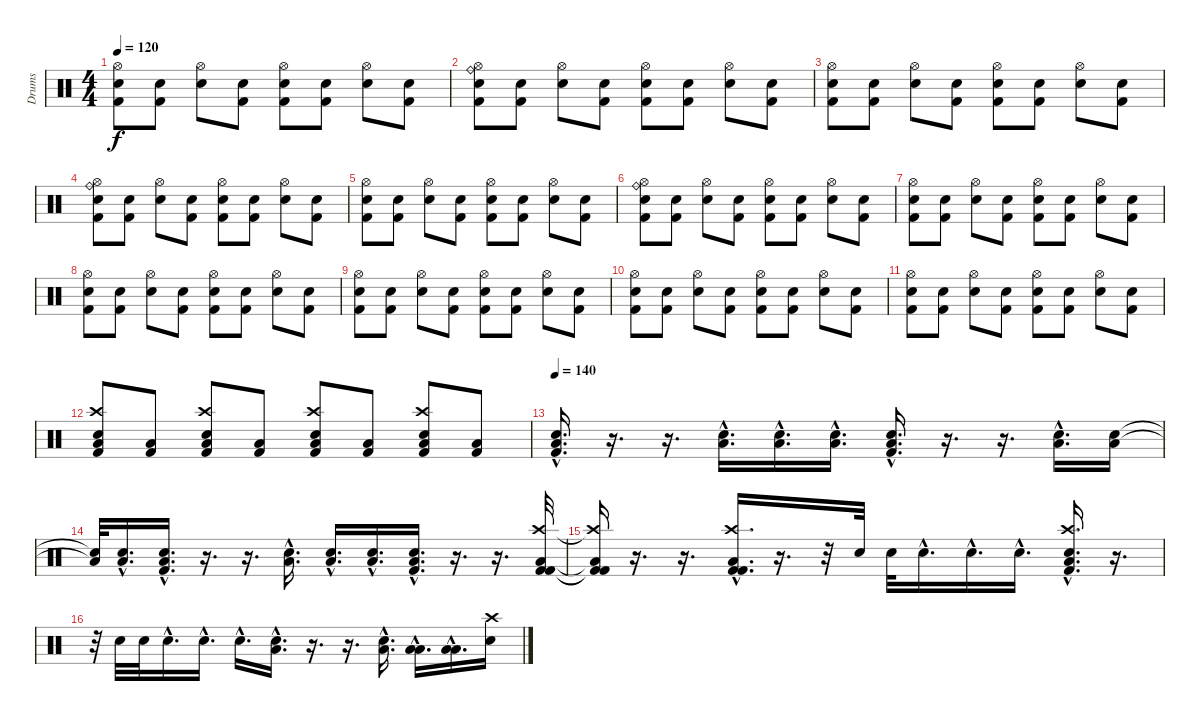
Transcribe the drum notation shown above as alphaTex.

\track ("Drums" "Drums") {instrument percussion}
\staff {score}
\articulation defaults
\ts (4 4)
\tempo 120
\clef neutral
\ks c
("Hi-Hat (open)" "Electric Snare (hit)" "Kick (hit) 2").8{dy f} ("Electric Snare (hit)" "Kick (hit) 2").8 ("Hi-Hat (open)" "Electric Snare (hit)").8 ("Snare (hit) 2" "Kick (hit) 2").8 ("Hi-Hat (open)" "Electric Snare (hit)" "Kick (hit) 2").8 ("Electric Snare (hit)" "Kick (hit) 2").8 ("Hi-Hat (open)" "Electric Snare (hit)").8 ("Kick (hit) 2" "Snare (hit) 2").8 |
("Ride (bell)" "Hi-Hat (open)" "Electric Snare (hit)" "Kick (hit) 2").8 ("Electric Snare (hit)" "Kick (hit) 2").8 ("Hi-Hat (open)" "Electric Snare (hit)").8 ("Snare (hit) 2" "Kick (hit) 2").8 ("Hi-Hat (open)" "Electric Snare (hit)" "Kick (hit) 2").8 ("Electric Snare (hit)" "Kick (hit) 2").8 ("Hi-Hat (open)" "Electric Snare (hit)").8 ("Kick (hit) 2" "Snare (hit) 2").8 |
("Hi-Hat (open)" "Electric Snare (hit)" "Kick (hit) 2").8 ("Electric Snare (hit)" "Kick (hit) 2").8 ("Hi-Hat (open)" "Electric Snare (hit)").8 ("Snare (hit) 2" "Kick (hit) 2").8 ("Hi-Hat (open)" "Electric Snare (hit)" "Kick (hit) 2").8 ("Electric Snare (hit)" "Kick (hit) 2").8 ("Hi-Hat (open)" "Electric Snare (hit)").8 ("Kick (hit) 2" "Snare (hit) 2").8 |
("Ride (bell)" "Hi-Hat (open)" "Electric Snare (hit)" "Kick (hit) 2").8 ("Electric Snare (hit)" "Kick (hit) 2").8 ("Hi-Hat (open)" "Electric Snare (hit)").8 ("Snare (hit) 2" "Kick (hit) 2").8 ("Hi-Hat (open)" "Electric Snare (hit)" "Kick (hit) 2").8 ("Electric Snare (hit)" "Kick (hit) 2").8 ("Hi-Hat (open)" "Electric Snare (hit)").8 ("Kick (hit) 2" "Snare (hit) 2").8 |
("Hi-Hat (open)" "Electric Snare (hit)" "Kick (hit) 2").8 ("Electric Snare (hit)" "Kick (hit) 2").8 ("Hi-Hat (open)" "Electric Snare (hit)").8 ("Snare (hit) 2" "Kick (hit) 2").8 ("Hi-Hat (open)" "Electric Snare (hit)" "Kick (hit) 2").8 ("Electric Snare (hit)" "Kick (hit) 2").8 ("Hi-Hat (open)" "Electric Snare (hit)").8 ("Kick (hit) 2" "Snare (hit) 2").8 |
("Ride (bell)" "Hi-Hat (open)" "Electric Snare (hit)" "Kick (hit) 2").8 ("Electric Snare (hit)" "Kick (hit) 2").8 ("Hi-Hat (open)" "Electric Snare (hit)").8 ("Snare (hit) 2" "Kick (hit) 2").8 ("Hi-Hat (open)" "Electric Snare (hit)" "Kick (hit) 2").8 ("Electric Snare (hit)" "Kick (hit) 2").8 ("Hi-Hat (open)" "Electric Snare (hit)").8 ("Kick (hit) 2" "Snare (hit) 2").8 |
("Hi-Hat (open)" "Electric Snare (hit)" "Kick (hit) 2").8 ("Electric Snare (hit)" "Kick (hit) 2").8 ("Hi-Hat (open)" "Electric Snare (hit)").8 ("Snare (hit) 2" "Kick (hit) 2").8 ("Hi-Hat (open)" "Electric Snare (hit)" "Kick (hit) 2").8 ("Electric Snare (hit)" "Kick (hit) 2").8 ("Hi-Hat (open)" "Electric Snare (hit)").8 ("Kick (hit) 2" "Snare (hit) 2").8 |
("Hi-Hat (open)" "Electric Snare (hit)" "Kick (hit) 2").8 ("Electric Snare (hit)" "Kick (hit) 2").8 ("Hi-Hat (open)" "Electric Snare (hit)").8 ("Snare (hit) 2" "Kick (hit) 2").8 ("Hi-Hat (open)" "Electric Snare (hit)" "Kick (hit) 2").8 ("Electric Snare (hit)" "Kick (hit) 2").8 ("Hi-Hat (open)" "Electric Snare (hit)").8 ("Kick (hit) 2" "Snare (hit) 2").8 |
("Hi-Hat (open)" "Electric Snare (hit)" "Kick (hit) 2").8 ("Electric Snare (hit)" "Kick (hit) 2").8 ("Hi-Hat (open)" "Electric Snare (hit)").8 ("Snare (hit) 2" "Kick (hit) 2").8 ("Hi-Hat (open)" "Electric Snare (hit)" "Kick (hit) 2").8 ("Electric Snare (hit)" "Kick (hit) 2").8 ("Hi-Hat (open)" "Electric Snare (hit)").8 ("Kick (hit) 2" "Snare (hit) 2").8 |
("Hi-Hat (open)" "Electric Snare (hit)" "Kick (hit) 2").8 ("Electric Snare (hit)" "Kick (hit) 2").8 ("Hi-Hat (open)" "Electric Snare (hit)").8 ("Snare (hit) 2" "Kick (hit) 2").8 ("Hi-Hat (open)" "Electric Snare (hit)" "Kick (hit) 2").8 ("Electric Snare (hit)" "Kick (hit) 2").8 ("Hi-Hat (open)" "Electric Snare (hit)").8 ("Kick (hit) 2" "Snare (hit) 2").8 |
("Hi-Hat (open)" "Electric Snare (hit)" "Kick (hit) 2").8 ("Electric Snare (hit)" "Kick (hit) 2").8 ("Hi-Hat (open)" "Electric Snare (hit)").8 ("Snare (hit) 2" "Kick (hit) 2").8 ("Hi-Hat (open)" "Electric Snare (hit)" "Kick (hit) 2").8 ("Electric Snare (hit)" "Kick (hit) 2").8 ("Hi-Hat (open)" "Electric Snare (hit)").8 ("Kick (hit) 2" "Snare (hit) 2").8 |
("Crash high (hit)" "Snare (hit) 2" "Low Floor Tom (hit)" "Kick (hit) 2").8 ("Low Floor Tom (hit)" "Kick (hit) 2").8 ("Crash high (hit)" "Snare (hit) 2" "Low Floor Tom (hit)" "Kick (hit) 2").8 ("Low Floor Tom (hit)" "Kick (hit) 2").8 ("Crash high (hit)" "Snare (hit) 2" "Low Floor Tom (hit)" "Kick (hit) 2").8 ("Low Floor Tom (hit)" "Kick (hit) 2").8 ("Crash high (hit)" "Snare (hit) 2" "Low Floor Tom (hit)" "Kick (hit) 2").8 ("Low Floor Tom (hit)" "Kick (hit) 2").8 |
\tempo 140
("Snare (hit) 2"{hac} "Low Floor Tom (hit)"{hac} "Kick (hit) 2"{hac}).16{d} r.16{d} r.16{d} ("Snare (hit) 2"{hac} "Low Floor Tom (hit)"{hac}).16{d} ("Snare (hit) 2"{hac} "Low Floor Tom (hit)"{hac}).16{d} ("Low Floor Tom (hit)"{hac} "Snare (hit) 2"{hac}).16{d} ("Snare (hit) 2"{hac} "Low Floor Tom (hit)"{hac} "Kick (hit) 2"{hac}).16{d} r.16{d} r.16{d} ("Snare (hit) 2"{hac} "Low Floor Tom (hit)"{hac}).16{d} ("Snare (hit) 2" "Low Floor Tom (hit)").16 |
("Snare (hit) 2"{t} "Low Floor Tom (hit)"{t}).32 ("Snare (hit) 2"{hac} "Low Floor Tom (hit)"{hac}).16{d} ("Kick (hit) 2"{hac} "Low Floor Tom (hit)"{hac} "Snare (hit) 2"{hac}).16{d} r.16{d} r.16{d} ("Snare (hit) 2"{hac} "Low Floor Tom (hit)"{hac}).16{d} ("Snare (hit) 2"{hac} "Low Floor Tom (hit)"{hac}).16{d} ("Snare (hit) 2"{hac} "Low Floor Tom (hit)"{hac}).16{d} ("Snare (hit) 2"{hac} "Low Floor Tom (hit)"{hac} "Kick (hit) 2"{hac}).16{d} r.16{d} r.16{d} ("Crash high (hit)" "Kick (hit) 2" "Low Floor Tom (hit)" "Kick (hit) 2").32 |
("Crash high (hit)"{t} "Kick (hit) 2"{t} "Low Floor Tom (hit)"{t} "Kick (hit) 2"{t}).16 r.16{d} r.16{d} ("Crash high (hit)"{hac} "Kick (hit) 2"{hac} "Low Floor Tom (hit)"{hac} "Kick (hit) 2"{hac}).16{d} r.16{d} r.32 "Snare (hit) 2".32 "Snare (hit) 2".32 "Snare (hit) 2"{hac}.16{d} "Snare (hit) 2"{hac}.16{d} "Snare (hit) 2"{hac}.16{d} ("Crash high (hit)"{hac} "Low Floor Tom (hit)"{hac} "Snare (hit) 2"{hac} "Kick (hit) 2"{hac}).16{d} r.16{d} |
r.32 "Snare (hit) 2".32 "Snare (hit) 2".32 "Snare (hit) 2"{hac}.16{d} "Snare (hit) 2"{hac}.16{d} "Snare (hit) 2"{hac}.16{d} ("Low Floor Tom (hit)"{hac} "Snare (hit) 2"{hac}).16{d} r.16{d} r.16{d} ("Low Floor Tom (hit)"{hac} "Snare (hit) 2"{hac}).16{d} ("Low Floor Tom (hit)"{hac} "Low Floor Tom (hit)"{hac}).16{d} ("Low Floor Tom (hit)"{hac} "Low Floor Tom (hit)"{hac}).16{d} ("Crash high (hit)" "Snare (hit) 2").16
